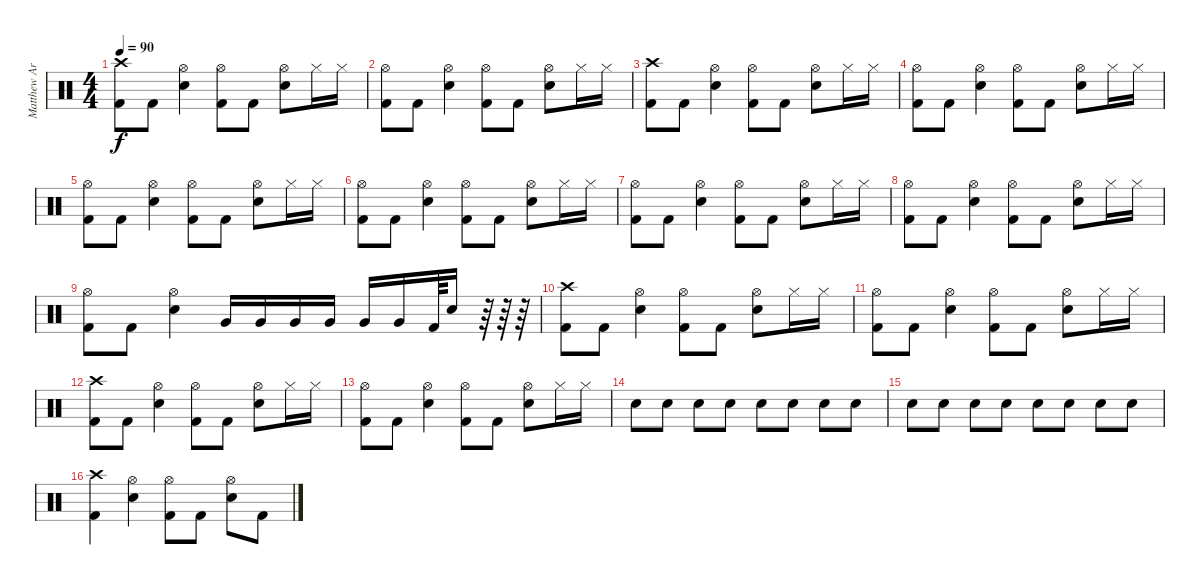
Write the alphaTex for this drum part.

\track ("Matthew Archer" "Matthew Ar") {instrument percussion}
\staff {score}
\articulation defaults
\ts (4 4)
\tempo 90
\clef neutral
\ks c
("Crash high (hit)" "Kick (hit) 2").8{dy f} "Kick (hit) 2".8 ("Hi-Hat (open)" "Electric Snare (hit)").4 ("Hi-Hat (open)" "Kick (hit) 2").8 "Kick (hit) 2".8 ("Hi-Hat (open)" "Electric Snare (hit)").8 "Hi-Hat (closed)".16 "Hi-Hat (closed)".16 |
("Hi-Hat (open)" "Kick (hit) 2").8 "Kick (hit) 2".8 ("Hi-Hat (open)" "Electric Snare (hit)").4 ("Hi-Hat (open)" "Kick (hit) 2").8 "Kick (hit) 2".8 ("Hi-Hat (open)" "Electric Snare (hit)").8 "Hi-Hat (closed)".16 "Hi-Hat (closed)".16 |
("Crash high (hit)" "Kick (hit) 2").8 "Kick (hit) 2".8 ("Hi-Hat (open)" "Electric Snare (hit)").4 ("Hi-Hat (open)" "Kick (hit) 2").8 "Kick (hit) 2".8 ("Hi-Hat (open)" "Electric Snare (hit)").8 "Hi-Hat (closed)".16 "Hi-Hat (closed)".16 |
("Hi-Hat (open)" "Kick (hit) 2").8 "Kick (hit) 2".8 ("Hi-Hat (open)" "Electric Snare (hit)").4 ("Hi-Hat (open)" "Kick (hit) 2").8 "Kick (hit) 2".8 ("Hi-Hat (open)" "Electric Snare (hit)").8 "Hi-Hat (closed)".16 "Hi-Hat (closed)".16 |
("Hi-Hat (open)" "Kick (hit) 2").8 "Kick (hit) 2".8 ("Hi-Hat (open)" "Electric Snare (hit)").4 ("Hi-Hat (open)" "Kick (hit) 2").8 "Kick (hit) 2".8 ("Hi-Hat (open)" "Electric Snare (hit)").8 "Hi-Hat (closed)".16 "Hi-Hat (closed)".16 |
("Hi-Hat (open)" "Kick (hit) 2").8 "Kick (hit) 2".8 ("Hi-Hat (open)" "Electric Snare (hit)").4 ("Hi-Hat (open)" "Kick (hit) 2").8 "Kick (hit) 2".8 ("Hi-Hat (open)" "Electric Snare (hit)").8 "Hi-Hat (closed)".16 "Hi-Hat (closed)".16 |
("Hi-Hat (open)" "Kick (hit) 2").8 "Kick (hit) 2".8 ("Hi-Hat (open)" "Electric Snare (hit)").4 ("Hi-Hat (open)" "Kick (hit) 2").8 "Kick (hit) 2".8 ("Hi-Hat (open)" "Electric Snare (hit)").8 "Hi-Hat (closed)".16 "Hi-Hat (closed)".16 |
("Hi-Hat (open)" "Kick (hit) 2").8 "Kick (hit) 2".8 ("Hi-Hat (open)" "Electric Snare (hit)").4 ("Hi-Hat (open)" "Kick (hit) 2").8 "Kick (hit) 2".8 ("Hi-Hat (open)" "Electric Snare (hit)").8 "Hi-Hat (closed)".16 "Hi-Hat (closed)".16 |
("Hi-Hat (open)" "Kick (hit) 2").8 "Kick (hit) 2".8 ("Hi-Hat (open)" "Electric Snare (hit)").4 "Very Low Tom (hit)".16 "Very Low Tom (hit)".16 "Very Low Tom (hit)".16 "Very Low Tom (hit)".16 "Very Low Tom (hit)".16 "Very Low Tom (hit)".16 "Kick (hit) 2".64 "Electric Snare (hit)".16 r.64 r.64 r.64 |
("Crash high (hit)" "Kick (hit) 2").8 "Kick (hit) 2".8 ("Hi-Hat (open)" "Electric Snare (hit)").4 ("Hi-Hat (open)" "Kick (hit) 2").8 "Kick (hit) 2".8 ("Hi-Hat (open)" "Electric Snare (hit)").8 "Hi-Hat (closed)".16 "Hi-Hat (closed)".16 |
("Hi-Hat (open)" "Kick (hit) 2").8 "Kick (hit) 2".8 ("Hi-Hat (open)" "Electric Snare (hit)").4 ("Hi-Hat (open)" "Kick (hit) 2").8 "Kick (hit) 2".8 ("Hi-Hat (open)" "Electric Snare (hit)").8 "Hi-Hat (closed)".16 "Hi-Hat (closed)".16 |
("Crash high (hit)" "Kick (hit) 2").8 "Kick (hit) 2".8 ("Hi-Hat (open)" "Electric Snare (hit)").4 ("Hi-Hat (open)" "Kick (hit) 2").8 "Kick (hit) 2".8 ("Hi-Hat (open)" "Electric Snare (hit)").8 "Hi-Hat (closed)".16 "Hi-Hat (closed)".16 |
("Hi-Hat (open)" "Kick (hit) 2").8 "Kick (hit) 2".8 ("Hi-Hat (open)" "Electric Snare (hit)").4 ("Hi-Hat (open)" "Kick (hit) 2").8 "Kick (hit) 2".8 ("Hi-Hat (open)" "Electric Snare (hit)").8 "Hi-Hat (closed)".16 "Hi-Hat (closed)".16 |
"Electric Snare (hit)".8{volume 3} "Electric Snare (hit)".8 "Electric Snare (hit)".8{volume 5} "Electric Snare (hit)".8 "Electric Snare (hit)".8{volume 7} "Electric Snare (hit)".8 "Electric Snare (hit)".8{volume 9} "Electric Snare (hit)".8 |
"Electric Snare (hit)".8{volume 11} "Electric Snare (hit)".8 "Electric Snare (hit)".8{volume 13} "Electric Snare (hit)".8 "Electric Snare (hit)".8{volume 15} "Electric Snare (hit)".8 "Electric Snare (hit)".8 "Electric Snare (hit)".8 |
("Crash high (hit)" "Kick (hit) 2").4 ("Hi-Hat (open)" "Electric Snare (hit)").4 ("Hi-Hat (open)" "Kick (hit) 2").8 "Kick (hit) 2".8 ("Hi-Hat (open)" "Electric Snare (hit)").8 "Kick (hit) 2".8
